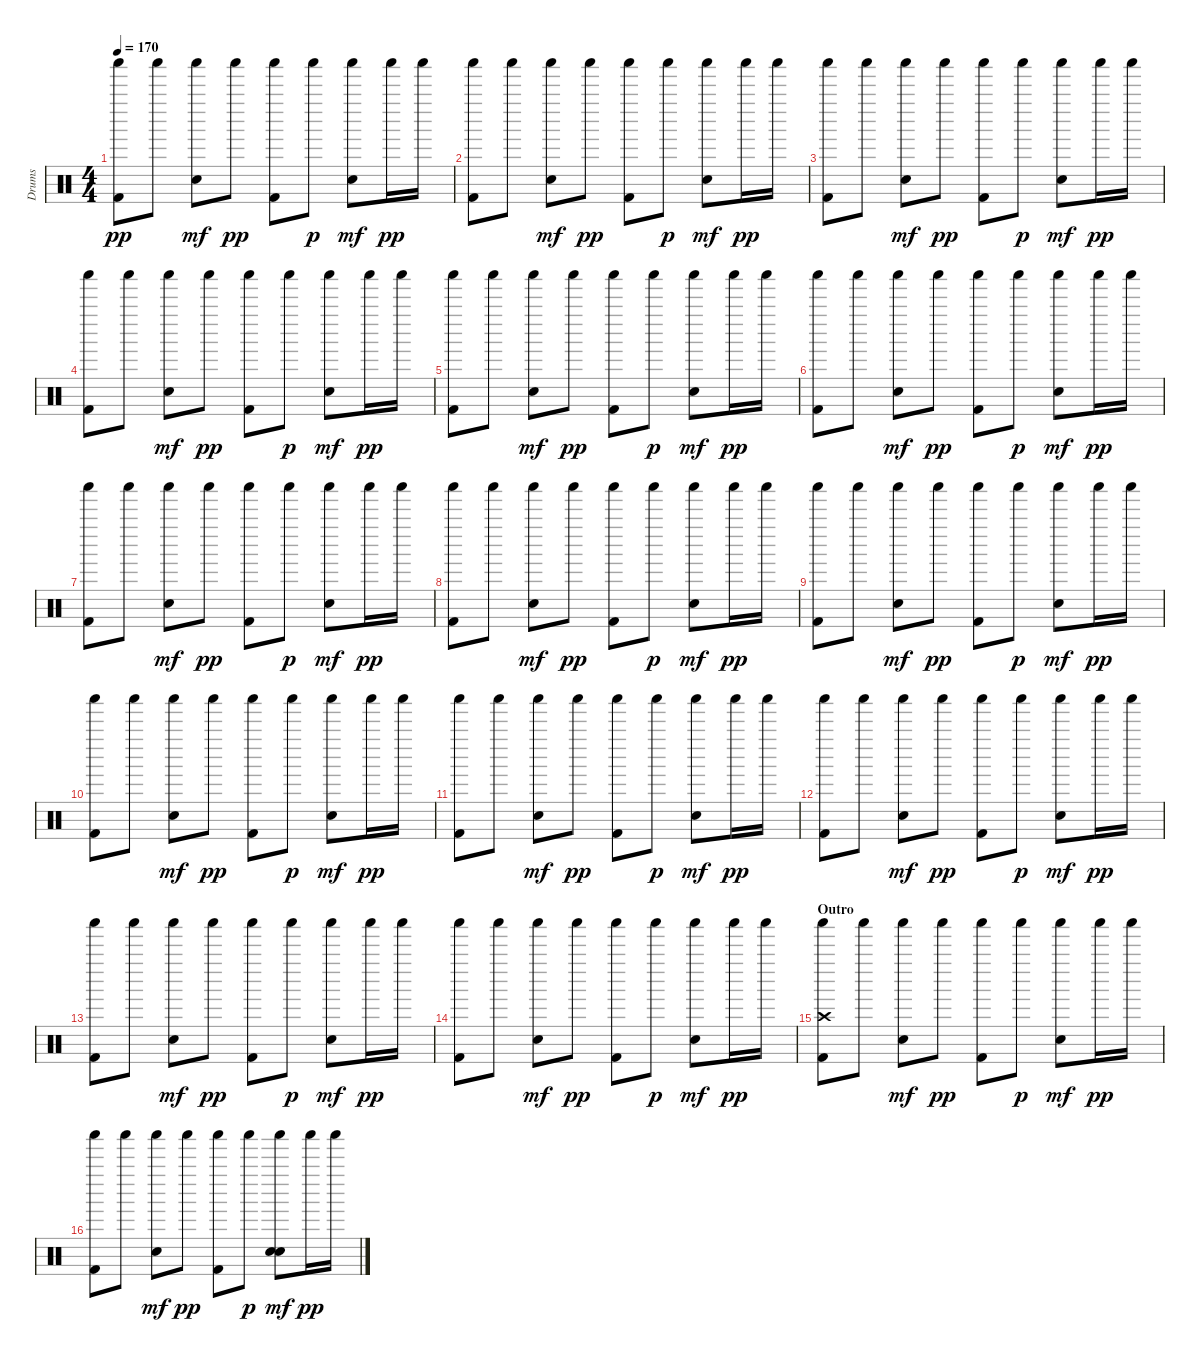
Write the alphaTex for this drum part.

\track ("Drums" "Drums") {instrument percussion}
\staff {score}
\articulation defaults
\ts (4 4)
\tempo 170
\clef neutral
\ks c
("Kick (hit) 2" "Shaker (hit)").8{dy pp} "Shaker (hit)".8 ("Snare (hit) 2" "Shaker (hit)").8{dy mf} "Shaker (hit)".8{dy pp} ("Kick (hit) 2" "Shaker (hit)").8 "Shaker (hit)".8{dy p} ("Snare (hit) 2" "Shaker (hit)").8{dy mf} "Shaker (hit)".16{dy pp} "Shaker (hit)".16 |
("Kick (hit) 2" "Shaker (hit)").8 "Shaker (hit)".8 ("Snare (hit) 2" "Shaker (hit)").8{dy mf} "Shaker (hit)".8{dy pp} ("Kick (hit) 2" "Shaker (hit)").8 "Shaker (hit)".8{dy p} ("Snare (hit) 2" "Shaker (hit)").8{dy mf} "Shaker (hit)".16{dy pp} "Shaker (hit)".16 |
("Kick (hit) 2" "Shaker (hit)").8 "Shaker (hit)".8 ("Snare (hit) 2" "Shaker (hit)").8{dy mf} "Shaker (hit)".8{dy pp} ("Kick (hit) 2" "Shaker (hit)").8 "Shaker (hit)".8{dy p} ("Snare (hit) 2" "Shaker (hit)").8{dy mf} "Shaker (hit)".16{dy pp} "Shaker (hit)".16 |
("Kick (hit) 2" "Shaker (hit)").8 "Shaker (hit)".8 ("Snare (hit) 2" "Shaker (hit)").8{dy mf} "Shaker (hit)".8{dy pp} ("Kick (hit) 2" "Shaker (hit)").8 "Shaker (hit)".8{dy p} ("Snare (hit) 2" "Shaker (hit)").8{dy mf} "Shaker (hit)".16{dy pp} "Shaker (hit)".16 |
("Kick (hit) 2" "Shaker (hit)").8 "Shaker (hit)".8 ("Snare (hit) 2" "Shaker (hit)").8{dy mf} "Shaker (hit)".8{dy pp} ("Kick (hit) 2" "Shaker (hit)").8 "Shaker (hit)".8{dy p} ("Snare (hit) 2" "Shaker (hit)").8{dy mf} "Shaker (hit)".16{dy pp} "Shaker (hit)".16 |
("Kick (hit) 2" "Shaker (hit)").8 "Shaker (hit)".8 ("Snare (hit) 2" "Shaker (hit)").8{dy mf} "Shaker (hit)".8{dy pp} ("Kick (hit) 2" "Shaker (hit)").8 "Shaker (hit)".8{dy p} ("Snare (hit) 2" "Shaker (hit)").8{dy mf} "Shaker (hit)".16{dy pp} "Shaker (hit)".16 |
("Kick (hit) 2" "Shaker (hit)").8 "Shaker (hit)".8 ("Snare (hit) 2" "Shaker (hit)").8{dy mf} "Shaker (hit)".8{dy pp} ("Kick (hit) 2" "Shaker (hit)").8 "Shaker (hit)".8{dy p} ("Snare (hit) 2" "Shaker (hit)").8{dy mf} "Shaker (hit)".16{dy pp} "Shaker (hit)".16 |
("Kick (hit) 2" "Shaker (hit)").8 "Shaker (hit)".8 ("Snare (hit) 2" "Shaker (hit)").8{dy mf} "Shaker (hit)".8{dy pp} ("Kick (hit) 2" "Shaker (hit)").8 "Shaker (hit)".8{dy p} ("Snare (hit) 2" "Shaker (hit)").8{dy mf} "Shaker (hit)".16{dy pp} "Shaker (hit)".16 |
("Kick (hit) 2" "Shaker (hit)").8 "Shaker (hit)".8 ("Snare (hit) 2" "Shaker (hit)").8{dy mf} "Shaker (hit)".8{dy pp} ("Kick (hit) 2" "Shaker (hit)").8 "Shaker (hit)".8{dy p} ("Snare (hit) 2" "Shaker (hit)").8{dy mf} "Shaker (hit)".16{dy pp} "Shaker (hit)".16 |
("Kick (hit) 2" "Shaker (hit)").8 "Shaker (hit)".8 ("Snare (hit) 2" "Shaker (hit)").8{dy mf} "Shaker (hit)".8{dy pp} ("Kick (hit) 2" "Shaker (hit)").8 "Shaker (hit)".8{dy p} ("Snare (hit) 2" "Shaker (hit)").8{dy mf} "Shaker (hit)".16{dy pp} "Shaker (hit)".16 |
("Kick (hit) 2" "Shaker (hit)").8 "Shaker (hit)".8 ("Snare (hit) 2" "Shaker (hit)").8{dy mf} "Shaker (hit)".8{dy pp} ("Kick (hit) 2" "Shaker (hit)").8 "Shaker (hit)".8{dy p} ("Snare (hit) 2" "Shaker (hit)").8{dy mf} "Shaker (hit)".16{dy pp} "Shaker (hit)".16 |
("Kick (hit) 2" "Shaker (hit)").8 "Shaker (hit)".8 ("Snare (hit) 2" "Shaker (hit)").8{dy mf} "Shaker (hit)".8{dy pp} ("Kick (hit) 2" "Shaker (hit)").8 "Shaker (hit)".8{dy p} ("Snare (hit) 2" "Shaker (hit)").8{dy mf} "Shaker (hit)".16{dy pp} "Shaker (hit)".16 |
("Kick (hit) 2" "Shaker (hit)").8 "Shaker (hit)".8 ("Snare (hit) 2" "Shaker (hit)").8{dy mf} "Shaker (hit)".8{dy pp} ("Kick (hit) 2" "Shaker (hit)").8 "Shaker (hit)".8{dy p} ("Snare (hit) 2" "Shaker (hit)").8{dy mf} "Shaker (hit)".16{dy pp} "Shaker (hit)".16 |
("Kick (hit) 2" "Shaker (hit)").8 "Shaker (hit)".8 ("Snare (hit) 2" "Shaker (hit)").8{dy mf} "Shaker (hit)".8{dy pp} ("Kick (hit) 2" "Shaker (hit)").8 "Shaker (hit)".8{dy p} ("Snare (hit) 2" "Shaker (hit)").8{dy mf} "Shaker (hit)".16{dy pp} "Shaker (hit)".16 |
\section ("" "Outro")
("Crash high (hit)" "Kick (hit) 2" "Shaker (hit)").8 "Shaker (hit)".8 ("Snare (hit) 2" "Shaker (hit)").8{dy mf} "Shaker (hit)".8{dy pp} ("Kick (hit) 2" "Shaker (hit)").8 "Shaker (hit)".8{dy p} ("Snare (hit) 2" "Shaker (hit)").8{dy mf} "Shaker (hit)".16{dy pp} "Shaker (hit)".16 |
("Kick (hit) 2" "Shaker (hit)").8 "Shaker (hit)".8 ("Snare (hit) 2" "Shaker (hit)").8{dy mf} "Shaker (hit)".8{dy pp} ("Kick (hit) 2" "Shaker (hit)").8 "Shaker (hit)".8{dy p} ("Snare (hit) 2" "Shaker (hit)" "Hand Clap (hit)").8{dy mf} "Shaker (hit)".16{dy pp} "Shaker (hit)".16
